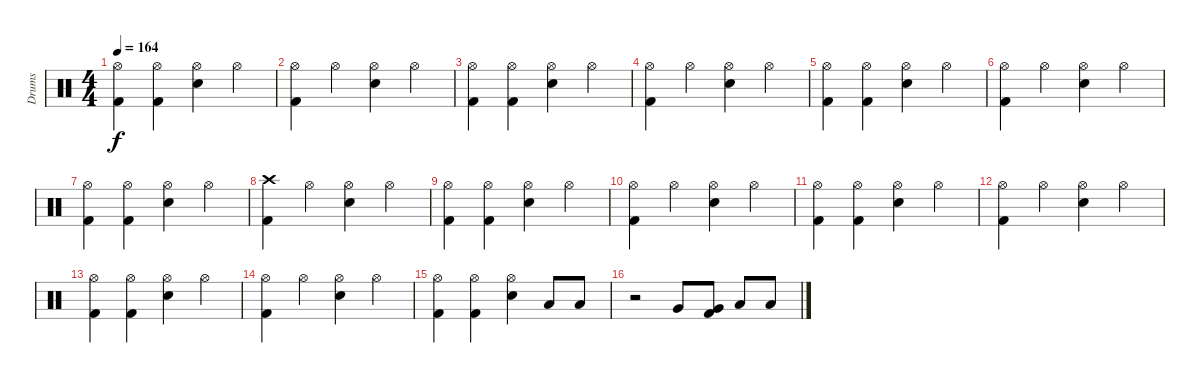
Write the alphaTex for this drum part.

\track ("Drums" "Drums") {instrument percussion}
\staff {score}
\articulation defaults
\ts (4 4)
\tempo 164
\clef neutral
\ks c
("Hi-Hat (open)" "Kick (hit) 2").4{dy f} ("Hi-Hat (open)" "Kick (hit) 2").4 ("Hi-Hat (open)" "Snare (hit) 2").4 "Hi-Hat (open)".4 |
("Hi-Hat (open)" "Kick (hit) 2").4 "Hi-Hat (open)".4 ("Hi-Hat (open)" "Snare (hit) 2").4 "Hi-Hat (open)".4 |
("Hi-Hat (open)" "Kick (hit) 2").4 ("Hi-Hat (open)" "Kick (hit) 2").4 ("Hi-Hat (open)" "Snare (hit) 2").4 "Hi-Hat (open)".4 |
("Hi-Hat (open)" "Kick (hit) 2").4 "Hi-Hat (open)".4 ("Hi-Hat (open)" "Snare (hit) 2").4 "Hi-Hat (open)".4 |
("Hi-Hat (open)" "Kick (hit) 2").4 ("Hi-Hat (open)" "Kick (hit) 2").4 ("Hi-Hat (open)" "Snare (hit) 2").4 "Hi-Hat (open)".4 |
("Hi-Hat (open)" "Kick (hit) 2").4 "Hi-Hat (open)".4 ("Hi-Hat (open)" "Snare (hit) 2").4 "Hi-Hat (open)".4 |
("Hi-Hat (open)" "Kick (hit) 2").4 ("Hi-Hat (open)" "Kick (hit) 2").4 ("Hi-Hat (open)" "Snare (hit) 2").4 "Hi-Hat (open)".4 |
("Crash high (hit)" "Kick (hit) 2").4 "Hi-Hat (open)".4 ("Hi-Hat (open)" "Snare (hit) 2").4 "Hi-Hat (open)".4 |
("Hi-Hat (open)" "Kick (hit) 2").4 ("Hi-Hat (open)" "Kick (hit) 2").4 ("Hi-Hat (open)" "Snare (hit) 2").4 "Hi-Hat (open)".4 |
("Hi-Hat (open)" "Kick (hit) 2").4 "Hi-Hat (open)".4 ("Hi-Hat (open)" "Snare (hit) 2").4 "Hi-Hat (open)".4 |
("Hi-Hat (open)" "Kick (hit) 2").4 ("Hi-Hat (open)" "Kick (hit) 2").4 ("Hi-Hat (open)" "Snare (hit) 2").4 "Hi-Hat (open)".4 |
("Hi-Hat (open)" "Kick (hit) 2").4 "Hi-Hat (open)".4 ("Hi-Hat (open)" "Snare (hit) 2").4 "Hi-Hat (open)".4 |
("Hi-Hat (open)" "Kick (hit) 2").4 ("Hi-Hat (open)" "Kick (hit) 2").4 ("Hi-Hat (open)" "Snare (hit) 2").4 "Hi-Hat (open)".4 |
("Hi-Hat (open)" "Kick (hit) 2").4 "Hi-Hat (open)".4 ("Hi-Hat (open)" "Snare (hit) 2").4 "Hi-Hat (open)".4 |
("Hi-Hat (open)" "Kick (hit) 2").4 ("Hi-Hat (open)" "Kick (hit) 2").4 ("Hi-Hat (open)" "Snare (hit) 2").4 "Low Tom (hit)".8 "Low Tom (hit)".8 |
r.2 "Very Low Tom (hit)".8 ("Very Low Tom (hit)" "Kick (hit) 2").8 "Low Floor Tom (hit)".8 "Low Floor Tom (hit)".8
